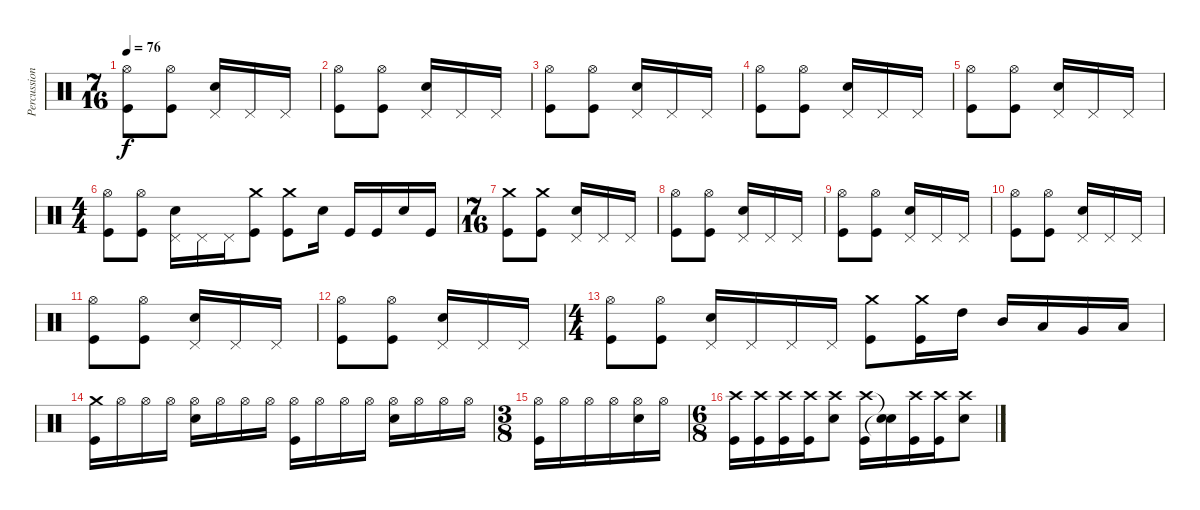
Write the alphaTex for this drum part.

\track ("Percussion" "Percussion") {instrument percussion}
\staff {score}
\articulation defaults
\ts (7 16)
\tempo 76
\clef neutral
\ks c
("Hi-Hat (open)" "Kick (hit)").8{dy f} ("Hi-Hat (open)" "Kick (hit)").8 ("Pedal Hi-Hat (hit)" "Snare (hit) 2").16 "Pedal Hi-Hat (hit)".16 "Pedal Hi-Hat (hit)".16 |
("Hi-Hat (open)" "Kick (hit)").8 ("Hi-Hat (open)" "Kick (hit)").8 ("Pedal Hi-Hat (hit)" "Snare (hit) 2").16 "Pedal Hi-Hat (hit)".16 "Pedal Hi-Hat (hit)".16 |
("Hi-Hat (open)" "Kick (hit)").8 ("Hi-Hat (open)" "Kick (hit)").8 ("Pedal Hi-Hat (hit)" "Snare (hit) 2").16 "Pedal Hi-Hat (hit)".16 "Pedal Hi-Hat (hit)".16 |
("Hi-Hat (open)" "Kick (hit)").8 ("Hi-Hat (open)" "Kick (hit)").8 ("Pedal Hi-Hat (hit)" "Snare (hit) 2").16 "Pedal Hi-Hat (hit)".16 "Pedal Hi-Hat (hit)".16 |
("Hi-Hat (open)" "Kick (hit)").8 ("Hi-Hat (open)" "Kick (hit)").8 ("Pedal Hi-Hat (hit)" "Snare (hit) 2").16 "Pedal Hi-Hat (hit)".16 "Pedal Hi-Hat (hit)".16 |
\ts (4 4)
("Hi-Hat (open)" "Kick (hit)").8 ("Hi-Hat (open)" "Kick (hit)").8 ("Pedal Hi-Hat (hit)" "Snare (hit) 2").16 "Pedal Hi-Hat (hit)".16 "Pedal Hi-Hat (hit)".16 ("Crash medium (hit)" "Kick (hit)").8 ("Crash medium (hit)" "Kick (hit)").8 "Snare (hit) 2".16 "Kick (hit)".16 "Kick (hit)".16 "Snare (hit) 2".16 "Kick (hit)".16 |
\ts (7 16)
("Crash medium (hit)" "Kick (hit)").8 ("Crash medium (hit)" "Kick (hit)").8 ("Pedal Hi-Hat (hit)" "Snare (hit) 2").16 "Pedal Hi-Hat (hit)".16 "Pedal Hi-Hat (hit)".16 |
("Hi-Hat (open)" "Kick (hit)").8 ("Hi-Hat (open)" "Kick (hit)").8 ("Pedal Hi-Hat (hit)" "Snare (hit) 2").16 "Pedal Hi-Hat (hit)".16 "Pedal Hi-Hat (hit)".16 |
("Hi-Hat (open)" "Kick (hit)").8 ("Hi-Hat (open)" "Kick (hit)").8 ("Pedal Hi-Hat (hit)" "Snare (hit) 2").16 "Pedal Hi-Hat (hit)".16 "Pedal Hi-Hat (hit)".16 |
("Hi-Hat (open)" "Kick (hit)").8 ("Hi-Hat (open)" "Kick (hit)").8 ("Pedal Hi-Hat (hit)" "Snare (hit) 2").16 "Pedal Hi-Hat (hit)".16 "Pedal Hi-Hat (hit)".16 |
("Hi-Hat (open)" "Kick (hit)").8 ("Hi-Hat (open)" "Kick (hit)").8 ("Pedal Hi-Hat (hit)" "Snare (hit) 2").16 "Pedal Hi-Hat (hit)".16 "Pedal Hi-Hat (hit)".16 |
("Hi-Hat (open)" "Kick (hit)").8 ("Hi-Hat (open)" "Kick (hit)").8 ("Pedal Hi-Hat (hit)" "Snare (hit) 2").16 "Pedal Hi-Hat (hit)".16 "Pedal Hi-Hat (hit)".16 |
\ts (4 4)
("Hi-Hat (open)" "Kick (hit)").8 ("Hi-Hat (open)" "Kick (hit)").8 ("Pedal Hi-Hat (hit)" "Snare (hit) 2").16 "Pedal Hi-Hat (hit)".16 "Pedal Hi-Hat (hit)".16 "Pedal Hi-Hat (hit)".16 ("Crash medium (hit)" "Kick (hit)").8 ("Crash medium (hit)" "Kick (hit)").16 "High Tom (hit)".16 "Mid Tom (hit)".16 "Low Tom (hit)".16 "Very Low Tom (hit)".16 "Low Floor Tom (hit)".16 |
("Crash medium (hit)" "Kick (hit)").16 "Hi-Hat (open)".16 "Hi-Hat (open)".16 "Hi-Hat (open)".16 ("Hi-Hat (open)" "Snare (hit) 2").16 "Hi-Hat (open)".16 "Hi-Hat (open)".16 "Hi-Hat (open)".16 ("Hi-Hat (open)" "Kick (hit)").16 "Hi-Hat (open)".16 "Hi-Hat (open)".16 "Hi-Hat (open)".16 ("Hi-Hat (open)" "Snare (hit) 2").16 "Hi-Hat (open)".16 "Hi-Hat (open)".16 "Hi-Hat (open)".16 |
\ts (3 8)
("Hi-Hat (open)" "Kick (hit)").16 "Hi-Hat (open)".16 "Hi-Hat (open)".16 "Hi-Hat (open)".16 ("Hi-Hat (open)" "Snare (hit) 2").16 "Hi-Hat (open)".16 |
\ts (6 8)
("Crash high (hit)" "Kick (hit)").16 ("Crash high (hit)" "Kick (hit)").16 ("Crash high (hit)" "Kick (hit)").16 ("Crash high (hit)" "Kick (hit)").16 ("Crash high (hit)" "Snare (hit) 2").8 ("Crash high (hit)" "Kick (hit)").16 ("Snare (hit)"{t} "Snare (hit)"{t}).16 ("Crash high (hit)" "Kick (hit)").16 ("Crash high (hit)" "Kick (hit)").16 ("Crash high (hit)" "Snare (hit) 2").8
